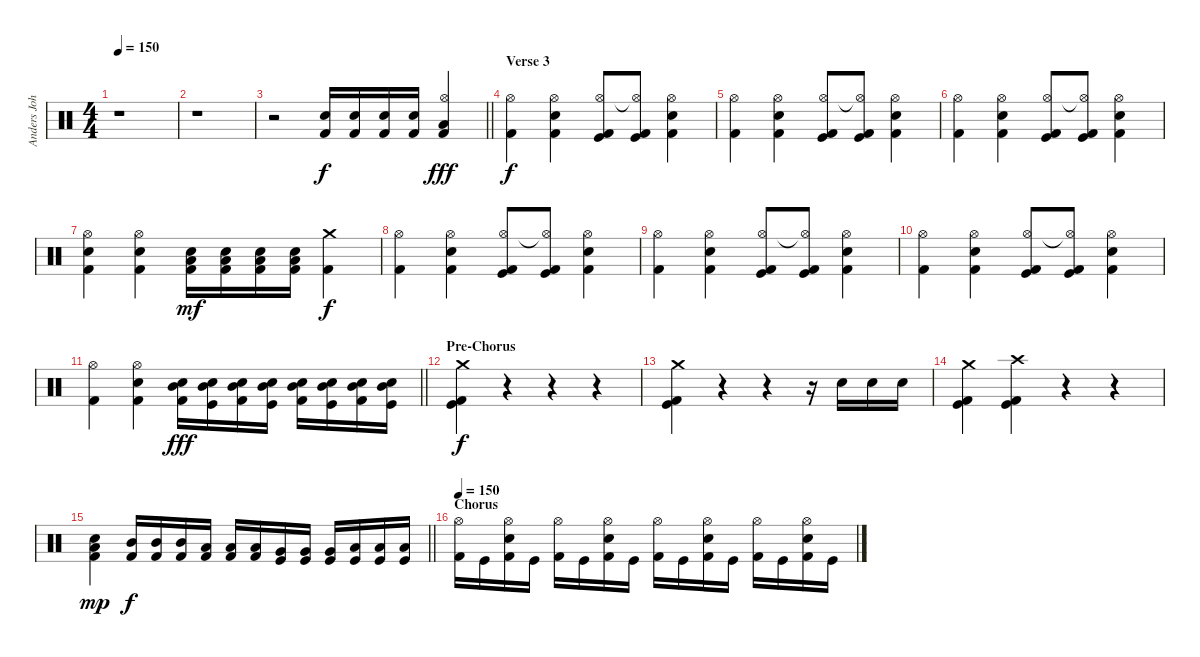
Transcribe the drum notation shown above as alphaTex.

\track ("Anders Johansson" "Anders Joh") {instrument percussion}
\staff {score}
\articulation defaults
\ts (4 4)
\tempo 150
\clef neutral
\ks c
r.1{dy f} |
r.1 |
\barLineRight lightlight
r.2 ("Electric Snare (hit)" "Kick (hit) 2").16 ("Electric Snare (hit)" "Kick (hit) 2").16 ("Electric Snare (hit)" "Kick (hit) 2").16 ("Electric Snare (hit)" "Kick (hit) 2").16 ("Hi-Hat (open)" "Low Tom (hit)" "Kick (hit) 2").4{dy fff} |
\section ("" "Verse 3")
("Hi-Hat (open)" "Kick (hit) 2").4{dy f} ("Hi-Hat (open)" "Electric Snare (hit)" "Kick (hit) 2").4 ("Hi-Hat (open)" "Kick (hit)" "Kick (hit) 2").8 ("Hi-Hat (open)"{t} "Kick (hit)" "Kick (hit) 2").8 ("Hi-Hat (open)" "Electric Snare (hit)" "Kick (hit) 2").4 |
("Hi-Hat (open)" "Kick (hit) 2").4 ("Hi-Hat (open)" "Electric Snare (hit)" "Kick (hit) 2").4 ("Hi-Hat (open)" "Kick (hit)" "Kick (hit) 2").8 ("Hi-Hat (open)"{t} "Kick (hit)" "Kick (hit) 2").8 ("Hi-Hat (open)" "Electric Snare (hit)" "Kick (hit) 2").4 |
("Hi-Hat (open)" "Kick (hit) 2").4 ("Hi-Hat (open)" "Electric Snare (hit)" "Kick (hit) 2").4 ("Hi-Hat (open)" "Kick (hit)" "Kick (hit) 2").8 ("Hi-Hat (open)"{t} "Kick (hit)" "Kick (hit) 2").8 ("Hi-Hat (open)" "Electric Snare (hit)" "Kick (hit) 2").4 |
("Hi-Hat (open)" "Electric Snare (hit)" "Kick (hit) 2").4 ("Hi-Hat (open)" "Electric Snare (hit)" "Kick (hit) 2").4 ("Low Tom (hit)" "Electric Snare (hit)" "Kick (hit) 2").16{dy mf} ("Low Tom (hit)" "Electric Snare (hit)" "Kick (hit) 2").16 ("Low Tom (hit)" "Electric Snare (hit)" "Kick (hit) 2").16 ("Low Tom (hit)" "Electric Snare (hit)" "Kick (hit) 2").16 ("Crash medium (hit)" "Kick (hit) 2").4{dy f} |
("Hi-Hat (open)" "Kick (hit) 2").4 ("Hi-Hat (open)" "Electric Snare (hit)" "Kick (hit) 2").4 ("Hi-Hat (open)" "Kick (hit)" "Kick (hit) 2").8 ("Hi-Hat (open)"{t} "Kick (hit)" "Kick (hit) 2").8 ("Hi-Hat (open)" "Electric Snare (hit)" "Kick (hit) 2").4 |
("Hi-Hat (open)" "Kick (hit) 2").4 ("Hi-Hat (open)" "Electric Snare (hit)" "Kick (hit) 2").4 ("Hi-Hat (open)" "Kick (hit)" "Kick (hit) 2").8 ("Hi-Hat (open)"{t} "Kick (hit)" "Kick (hit) 2").8 ("Hi-Hat (open)" "Electric Snare (hit)" "Kick (hit) 2").4 |
("Hi-Hat (open)" "Kick (hit) 2").4 ("Hi-Hat (open)" "Electric Snare (hit)" "Kick (hit) 2").4 ("Hi-Hat (open)" "Kick (hit)" "Kick (hit) 2").8 ("Hi-Hat (open)"{t} "Kick (hit)" "Kick (hit) 2").8 ("Hi-Hat (open)" "Electric Snare (hit)" "Kick (hit) 2").4 |
\barLineRight lightlight
("Hi-Hat (open)" "Kick (hit) 2").4 ("Hi-Hat (open)" "Electric Snare (hit)" "Kick (hit) 2").4 ("Mid Tom (hit)" "Electric Snare (hit)" "Kick (hit) 2").16{dy fff} ("Mid Tom (hit)" "Electric Snare (hit)" "Kick (hit)").16 ("Mid Tom (hit)" "Electric Snare (hit)" "Kick (hit) 2").16 ("Mid Tom (hit)" "Electric Snare (hit)" "Kick (hit)").16 ("Mid Tom (hit)" "Electric Snare (hit)" "Kick (hit) 2").16 ("Mid Tom (hit)" "Electric Snare (hit)" "Kick (hit)").16 ("Mid Tom (hit)" "Electric Snare (hit)" "Kick (hit) 2").16 ("Mid Tom (hit)" "Electric Snare (hit)" "Kick (hit)").16 |
\section ("" "Pre-Chorus")
("Crash medium (hit)" "Kick (hit)" "Kick (hit) 2").4{dy f} r.4 r.4 r.4 |
("Crash medium (hit)" "Kick (hit)" "Kick (hit) 2").4 r.4 r.4 r.16 "Electric Snare (hit)".16 "Electric Snare (hit)".16 "Electric Snare (hit)".16 |
("Crash medium (hit)" "Kick (hit)" "Kick (hit) 2").4 ("Crash high (hit)" "Kick (hit)" "Kick (hit) 2").4 r.4 r.4 |
\barLineRight lightlight
("Low Tom (hit)" "Electric Snare (hit)" "Kick (hit) 2").4{dy mp} ("Mid Tom (hit)" "Kick (hit) 2").16{dy f} ("Mid Tom (hit)" "Kick (hit) 2").16 ("Mid Tom (hit)" "Kick (hit) 2").16 ("Low Tom (hit)" "Kick (hit) 2").16 ("Low Tom (hit)" "Kick (hit) 2").16 ("Low Tom (hit)" "Kick (hit) 2").16 ("Very Low Tom (hit)" "Kick (hit)").16 ("Very Low Tom (hit)" "Kick (hit)").16 ("Very Low Tom (hit)" "Kick (hit)").16 ("Low Floor Tom (hit)" "Kick (hit)").16 ("Low Floor Tom (hit)" "Kick (hit)").16 ("Low Floor Tom (hit)" "Kick (hit)").16 |
\section ("" "Chorus")
\tempo 150
("Hi-Hat (open)" "Kick (hit) 2").16 "Kick (hit)".16 ("Hi-Hat (open)" "Electric Snare (hit)" "Kick (hit) 2").16 "Kick (hit)".16 ("Hi-Hat (open)" "Kick (hit) 2").16 "Kick (hit)".16 ("Hi-Hat (open)" "Electric Snare (hit)" "Kick (hit) 2").16 "Kick (hit)".16 ("Hi-Hat (open)" "Kick (hit) 2").16 "Kick (hit)".16 ("Hi-Hat (open)" "Electric Snare (hit)" "Kick (hit) 2").16 "Kick (hit)".16 ("Hi-Hat (open)" "Kick (hit) 2").16 "Kick (hit)".16 ("Hi-Hat (open)" "Electric Snare (hit)" "Kick (hit) 2").16 "Kick (hit)".16
